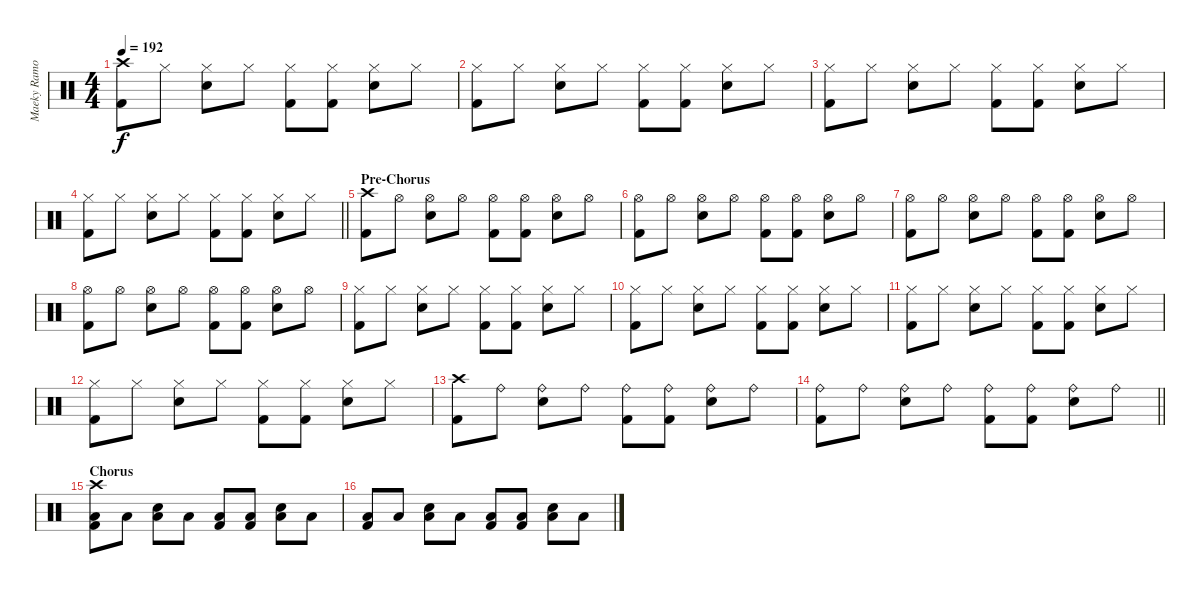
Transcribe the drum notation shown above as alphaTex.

\track ("Maeky Ramone" "Maeky Ramo") {instrument percussion}
\staff {score}
\articulation defaults
\ts (4 4)
\tempo 192
\clef neutral
\ks c
("Crash high (hit)" "Kick (hit) 2").8{dy f} "Hi-Hat (closed)".8 ("Hi-Hat (closed)" "Snare (hit) 2").8 "Hi-Hat (closed)".8 ("Hi-Hat (closed)" "Kick (hit) 2").8 ("Hi-Hat (closed)" "Kick (hit) 2").8 ("Hi-Hat (closed)" "Snare (hit) 2").8 "Hi-Hat (closed)".8 |
("Hi-Hat (closed)" "Kick (hit) 2").8 "Hi-Hat (closed)".8 ("Hi-Hat (closed)" "Snare (hit) 2").8 "Hi-Hat (closed)".8 ("Hi-Hat (closed)" "Kick (hit) 2").8 ("Hi-Hat (closed)" "Kick (hit) 2").8 ("Hi-Hat (closed)" "Snare (hit) 2").8 "Hi-Hat (closed)".8 |
("Hi-Hat (closed)" "Kick (hit) 2").8 "Hi-Hat (closed)".8 ("Hi-Hat (closed)" "Snare (hit) 2").8 "Hi-Hat (closed)".8 ("Hi-Hat (closed)" "Kick (hit) 2").8 ("Hi-Hat (closed)" "Kick (hit) 2").8 ("Hi-Hat (closed)" "Snare (hit) 2").8 "Hi-Hat (closed)".8 |
\barLineRight lightlight
("Hi-Hat (closed)" "Kick (hit) 2").8 "Hi-Hat (closed)".8 ("Hi-Hat (closed)" "Snare (hit) 2").8 "Hi-Hat (closed)".8 ("Hi-Hat (closed)" "Kick (hit) 2").8 ("Hi-Hat (closed)" "Kick (hit) 2").8 ("Hi-Hat (closed)" "Snare (hit) 2").8 "Hi-Hat (closed)".8 |
\section ("" "Pre-Chorus")
("Crash high (hit)" "Kick (hit) 2").8 "Hi-Hat (open)".8 ("Hi-Hat (open)" "Snare (hit) 2").8 "Hi-Hat (open)".8 ("Hi-Hat (open)" "Kick (hit) 2").8 ("Hi-Hat (open)" "Kick (hit) 2").8 ("Hi-Hat (open)" "Snare (hit) 2").8 "Hi-Hat (open)".8 |
("Hi-Hat (open)" "Kick (hit) 2").8 "Hi-Hat (open)".8 ("Hi-Hat (open)" "Snare (hit) 2").8 "Hi-Hat (open)".8 ("Hi-Hat (open)" "Kick (hit) 2").8 ("Hi-Hat (open)" "Kick (hit) 2").8 ("Hi-Hat (open)" "Snare (hit) 2").8 "Hi-Hat (open)".8 |
("Hi-Hat (open)" "Kick (hit) 2").8 "Hi-Hat (open)".8 ("Hi-Hat (open)" "Snare (hit) 2").8 "Hi-Hat (open)".8 ("Hi-Hat (open)" "Kick (hit) 2").8 ("Hi-Hat (open)" "Kick (hit) 2").8 ("Hi-Hat (open)" "Snare (hit) 2").8 "Hi-Hat (open)".8 |
("Hi-Hat (open)" "Kick (hit) 2").8 "Hi-Hat (open)".8 ("Hi-Hat (open)" "Snare (hit) 2").8 "Hi-Hat (open)".8 ("Hi-Hat (open)" "Kick (hit) 2").8 ("Hi-Hat (open)" "Kick (hit) 2").8 ("Hi-Hat (open)" "Snare (hit) 2").8 "Hi-Hat (open)".8 |
("Hi-Hat (closed)" "Kick (hit) 2").8 "Hi-Hat (closed)".8 ("Hi-Hat (closed)" "Snare (hit) 2").8 "Hi-Hat (closed)".8 ("Hi-Hat (closed)" "Kick (hit) 2").8 ("Hi-Hat (closed)" "Kick (hit) 2").8 ("Hi-Hat (closed)" "Snare (hit) 2").8 "Hi-Hat (closed)".8 |
("Hi-Hat (closed)" "Kick (hit) 2").8 "Hi-Hat (closed)".8 ("Hi-Hat (closed)" "Snare (hit) 2").8 "Hi-Hat (closed)".8 ("Hi-Hat (closed)" "Kick (hit) 2").8 ("Hi-Hat (closed)" "Kick (hit) 2").8 ("Hi-Hat (closed)" "Snare (hit) 2").8 "Hi-Hat (closed)".8 |
("Hi-Hat (closed)" "Kick (hit) 2").8 "Hi-Hat (closed)".8 ("Hi-Hat (closed)" "Snare (hit) 2").8 "Hi-Hat (closed)".8 ("Hi-Hat (closed)" "Kick (hit) 2").8 ("Hi-Hat (closed)" "Kick (hit) 2").8 ("Hi-Hat (closed)" "Snare (hit) 2").8 "Hi-Hat (closed)".8 |
("Hi-Hat (closed)" "Kick (hit) 2").8 "Hi-Hat (closed)".8 ("Hi-Hat (closed)" "Snare (hit) 2").8 "Hi-Hat (closed)".8 ("Hi-Hat (closed)" "Kick (hit) 2").8 ("Hi-Hat (closed)" "Kick (hit) 2").8 ("Hi-Hat (closed)" "Snare (hit) 2").8 "Hi-Hat (closed)".8 |
("Crash high (hit)" "Kick (hit) 2").8 "Ride (bell)".8 ("Ride (bell)" "Snare (hit) 2").8 "Ride (bell)".8 ("Ride (bell)" "Kick (hit) 2").8 ("Ride (bell)" "Kick (hit) 2").8 ("Ride (bell)" "Snare (hit) 2").8 "Ride (bell)".8 |
\barLineRight lightlight
("Ride (bell)" "Kick (hit) 2").8 "Ride (bell)".8 ("Ride (bell)" "Snare (hit) 2").8 "Ride (bell)".8 ("Ride (bell)" "Kick (hit) 2").8 ("Ride (bell)" "Kick (hit) 2").8 ("Ride (bell)" "Snare (hit) 2").8 "Ride (bell)".8 |
\section ("" "Chorus")
("Crash high (hit)" "Kick (hit) 2" "Low Floor Tom (hit)").8 "Low Floor Tom (hit)".8 ("Snare (hit) 2" "Low Floor Tom (hit)").8 "Low Floor Tom (hit)".8 ("Kick (hit) 2" "Low Floor Tom (hit)").8 ("Kick (hit) 2" "Low Floor Tom (hit)").8 ("Snare (hit) 2" "Low Floor Tom (hit)").8 "Low Floor Tom (hit)".8 |
("Kick (hit) 2" "Low Floor Tom (hit)").8 "Low Floor Tom (hit)".8 ("Snare (hit) 2" "Low Floor Tom (hit)").8 "Low Floor Tom (hit)".8 ("Kick (hit) 2" "Low Floor Tom (hit)").8 ("Kick (hit) 2" "Low Floor Tom (hit)").8 ("Snare (hit) 2" "Low Floor Tom (hit)").8 "Low Floor Tom (hit)".8
